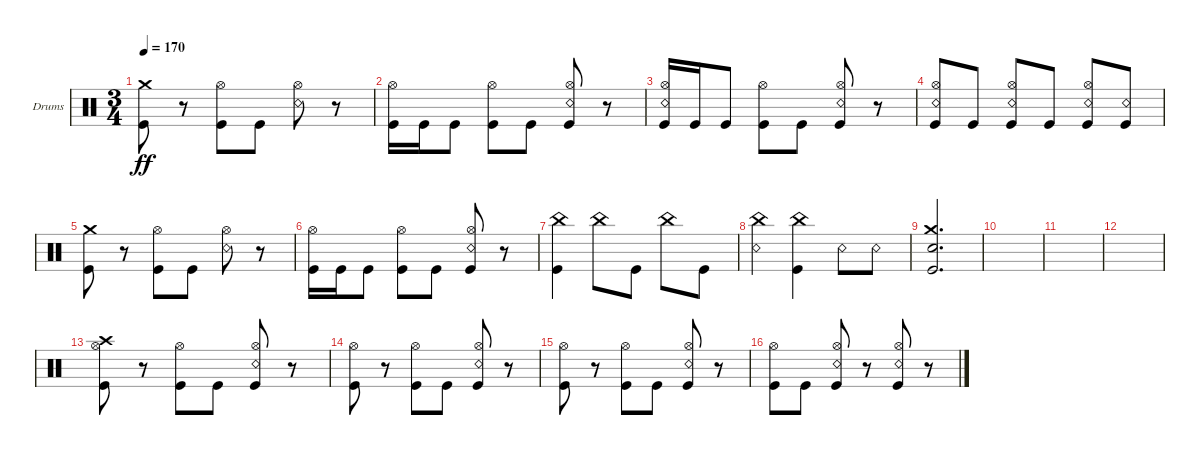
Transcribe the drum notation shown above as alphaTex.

\bracketExtendMode groupsimilarinstruments
\firstSystemTrackNameOrientation horizontal
\otherSystemsTrackNameOrientation horizontal
\track ("Kaleb - Drums" "Drums") {instrument percussion}
\staff {score}
\articulation defaults
\ts (3 4)
\tempo 170
\clef neutral
\ks c
("Kick (hit)" "Crash medium (hit)").8{dy ff} r.8 ("Kick (hit)" "Hi-Hat (open)").8 "Kick (hit)".8 ("Snare (rim shot)" "Hi-Hat (open)").8 r.8 |
("Kick (hit)" "Hi-Hat (open)").16 "Kick (hit)".16 "Kick (hit)".8 ("Kick (hit)" "Hi-Hat (open)").8 "Kick (hit)".8 ("Kick (hit)" "Hi-Hat (open)" "Snare (rim shot)").8 r.8 |
("Kick (hit)" "Hi-Hat (open)" "Snare (rim shot)").16 "Kick (hit)".16 "Kick (hit)".8 ("Kick (hit)" "Hi-Hat (open)").8 "Kick (hit)".8 ("Kick (hit)" "Hi-Hat (open)" "Snare (rim shot)").8 r.8 |
("Kick (hit)" "Snare (rim shot)" "Hi-Hat (open)").8 "Kick (hit)".8 ("Kick (hit)" "Snare (rim shot)" "Hi-Hat (open)").8 "Kick (hit)".8 ("Kick (hit)" "Snare (rim shot)" "Hi-Hat (open)").8 ("Kick (hit)" "Snare (rim shot)").8 |
("Kick (hit)" "Crash medium (hit)").8 r.8 ("Kick (hit)" "Hi-Hat (open)").8 "Kick (hit)".8 ("Snare (rim shot)" "Hi-Hat (open)").8 r.8 |
("Kick (hit)" "Hi-Hat (open)").16 "Kick (hit)".16 "Kick (hit)".8 ("Kick (hit)" "Hi-Hat (open)").8 "Kick (hit)".8 ("Kick (hit)" "Hi-Hat (open)" "Snare (rim shot)").8 r.8 |
("China (hit)" "Kick (hit)").4 "China (hit)".8 "Kick (hit)".8 "China (hit)".8 "Kick (hit)".8 |
("China (hit)" "Snare (rim shot)").4 ("China (hit)" "Kick (hit)").4 "Snare (rim shot)".8 "Snare (rim shot)".8 |
("Crash medium (hit)" "Kick (hit)" "Snare (hit) 2").2{d} |
|
|
|
("Kick (hit)" "Hi-Hat (open)" "Crash high (hit)").8 r.8 ("Kick (hit)" "Hi-Hat (open)").8 "Kick (hit)".8 ("Kick (hit)" "Snare (rim shot)" "Hi-Hat (open)").8 r.8 |
("Kick (hit)" "Hi-Hat (open)").8 r.8 ("Kick (hit)" "Hi-Hat (open)").8 "Kick (hit)".8 ("Kick (hit)" "Hi-Hat (open)" "Snare (rim shot)").8 r.8 |
("Kick (hit)" "Hi-Hat (open)").8 r.8 ("Kick (hit)" "Hi-Hat (open)").8 "Kick (hit)".8 ("Kick (hit)" "Hi-Hat (open)" "Snare (rim shot)").8 r.8 |
("Kick (hit)" "Hi-Hat (open)").8 "Kick (hit)".8 ("Kick (hit)" "Hi-Hat (open)" "Snare (rim shot)").8 r.8 ("Kick (hit)" "Hi-Hat (open)" "Snare (rim shot)").8 r.8
